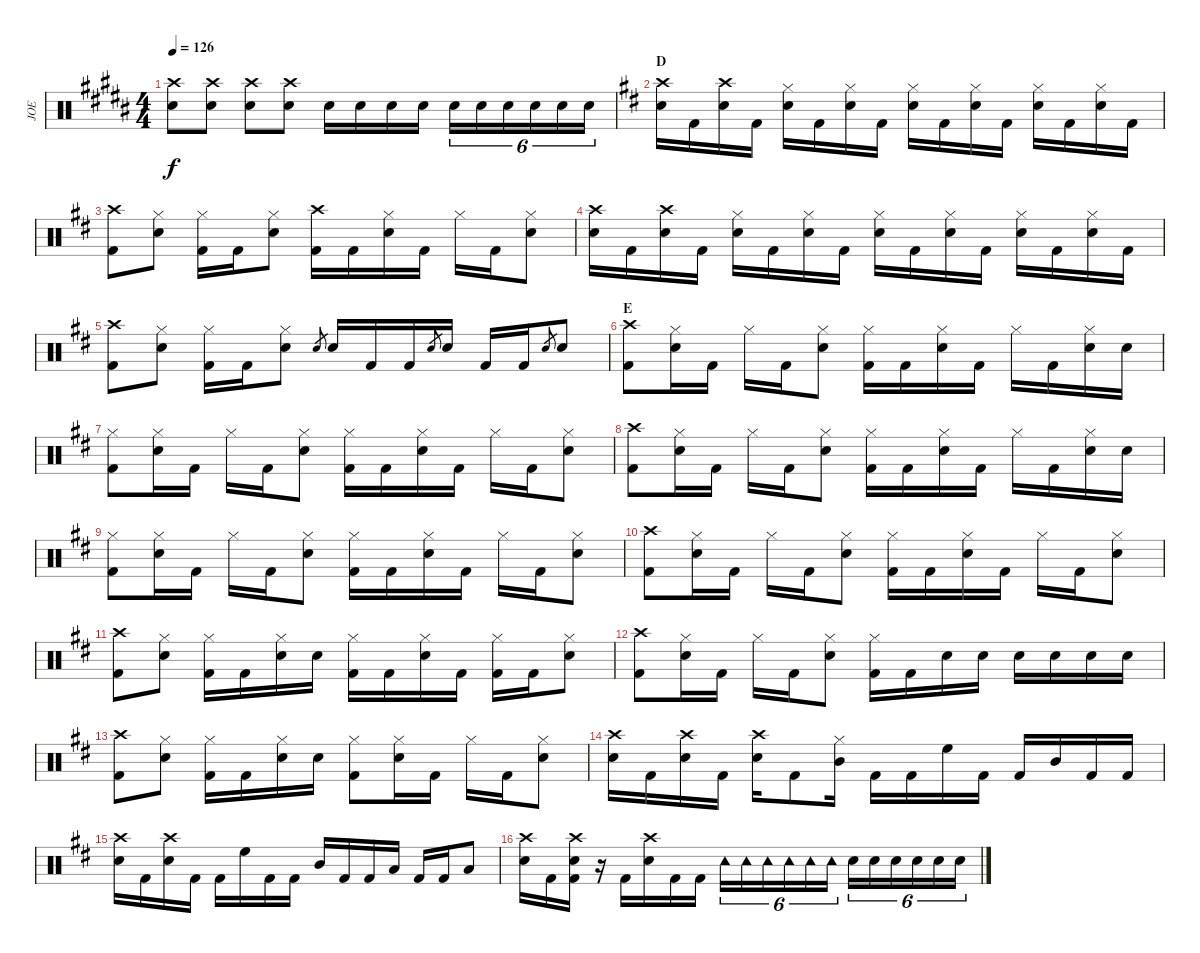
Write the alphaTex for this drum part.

\track ("JOE" "JOE") {instrument percussion}
\staff {score}
\articulation defaults
\ts (4 4)
\tempo 126
\clef neutral
\ks b
("Crash high (hit)" "Snare (hit) 2").8{dy f} ("Crash high (hit)" "Snare (hit) 2").8 ("Crash high (hit)" "Snare (hit) 2").8 ("Crash high (hit)" "Snare (hit) 2").8 "Snare (hit)"{x}.16 "Snare (hit)"{x}.16 "Snare (hit)"{x}.16 "Snare (hit)"{x}.16 "Snare (hit) 2".16{tu (6 4)} "Snare (hit) 2".16{tu (6 4)} "Snare (hit) 2".16{tu (6 4)} "Snare (hit) 2".16{tu (6 4)} "Snare (hit) 2".16{tu (6 4)} "Snare (hit) 2".16{tu (6 4)} |
\section ("" "D")
\ks d
("Crash high (hit)" "Snare (hit) 2").16 "Kick (hit) 2".16 ("Crash high (hit)" "Snare (hit) 2").16 "Kick (hit) 2".16 ("Hi-Hat (closed)" "Snare (hit) 2").16 "Kick (hit) 2".16 ("Hi-Hat (closed)" "Snare (hit) 2").16 "Kick (hit) 2".16 ("Hi-Hat (closed)" "Snare (hit) 2").16 "Kick (hit) 2".16 ("Hi-Hat (closed)" "Snare (hit) 2").16 "Kick (hit) 2".16 ("Hi-Hat (closed)" "Snare (hit) 2").16 "Kick (hit) 2".16 ("Hi-Hat (closed)" "Snare (hit) 2").16 "Kick (hit) 2".16 |
("Crash high (hit)" "Kick (hit) 2").8 ("Hi-Hat (closed)" "Snare (hit) 2").8 ("Hi-Hat (closed)" "Kick (hit) 2").16 "Kick (hit) 2".16 ("Hi-Hat (closed)" "Snare (hit) 2").8 ("Crash high (hit)" "Kick (hit) 2").16 "Kick (hit) 2".16 ("Hi-Hat (closed)" "Snare (hit) 2").16 "Kick (hit) 2".16 "Hi-Hat (closed)".16 "Kick (hit) 2".16 ("Hi-Hat (closed)" "Snare (hit) 2").8 |
("Crash high (hit)" "Snare (hit) 2").16 "Kick (hit) 2".16 ("Crash high (hit)" "Snare (hit) 2").16 "Kick (hit) 2".16 ("Hi-Hat (closed)" "Snare (hit) 2").16 "Kick (hit) 2".16 ("Hi-Hat (closed)" "Snare (hit) 2").16 "Kick (hit) 2".16 ("Hi-Hat (closed)" "Snare (hit) 2").16 "Kick (hit) 2".16 ("Hi-Hat (closed)" "Snare (hit) 2").16 "Kick (hit) 2".16 ("Hi-Hat (closed)" "Snare (hit) 2").16 "Kick (hit) 2".16 ("Hi-Hat (closed)" "Snare (hit) 2").16 "Kick (hit) 2".16 |
("Crash high (hit)" "Kick (hit) 2").8 ("Hi-Hat (closed)" "Snare (hit) 2").8 ("Hi-Hat (closed)" "Kick (hit) 2").16 "Kick (hit) 2".16 ("Hi-Hat (closed)" "Snare (hit) 2").8 "Snare (hit) 2".8{gr} "Snare (hit) 2".16 "Kick (hit) 2".16 "Kick (hit) 2".16 "Snare (hit) 2".8{gr} "Snare (hit) 2".16 "Kick (hit) 2".16 "Kick (hit) 2".16 "Snare (hit) 2".8{gr} "Snare (hit) 2".8 |
\section ("" "E")
("Crash high (hit)" "Kick (hit) 2").8 ("Hi-Hat (closed)" "Snare (hit) 2").16 "Kick (hit) 2".16 "Hi-Hat (closed)".16 "Kick (hit) 2".16 ("Hi-Hat (closed)" "Snare (hit) 2").8 ("Hi-Hat (closed)" "Kick (hit) 2").16 "Kick (hit) 2".16 ("Hi-Hat (closed)" "Snare (hit) 2").16 "Kick (hit) 2".16 "Hi-Hat (closed)".16 "Kick (hit) 2".16 ("Hi-Hat (closed)" "Snare (hit) 2").16 "Snare (hit) 2".16 |
("Hi-Hat (closed)" "Kick (hit) 2").8 ("Hi-Hat (closed)" "Snare (hit) 2").16 "Kick (hit) 2".16 "Hi-Hat (closed)".16 "Kick (hit) 2".16 ("Hi-Hat (closed)" "Snare (hit) 2").8 ("Hi-Hat (closed)" "Kick (hit) 2").16 "Kick (hit) 2".16 ("Hi-Hat (closed)" "Snare (hit) 2").16 "Kick (hit) 2".16 "Hi-Hat (closed)".16 "Kick (hit) 2".16 ("Hi-Hat (closed)" "Snare (hit) 2").8 |
("Crash high (hit)" "Kick (hit) 2").8 ("Hi-Hat (closed)" "Snare (hit) 2").16 "Kick (hit) 2".16 "Hi-Hat (closed)".16 "Kick (hit) 2".16 ("Hi-Hat (closed)" "Snare (hit) 2").8 ("Hi-Hat (closed)" "Kick (hit) 2").16 "Kick (hit) 2".16 ("Hi-Hat (closed)" "Snare (hit) 2").16 "Kick (hit) 2".16 "Hi-Hat (closed)".16 "Kick (hit) 2".16 ("Hi-Hat (closed)" "Snare (hit) 2").16 "Snare (hit) 2".16 |
("Hi-Hat (closed)" "Kick (hit) 2").8 ("Hi-Hat (closed)" "Snare (hit) 2").16 "Kick (hit) 2".16 "Hi-Hat (closed)".16 "Kick (hit) 2".16 ("Hi-Hat (closed)" "Snare (hit) 2").8 ("Hi-Hat (closed)" "Kick (hit) 2").16 "Kick (hit) 2".16 ("Hi-Hat (closed)" "Snare (hit) 2").16 "Kick (hit) 2".16 "Hi-Hat (closed)".16 "Kick (hit) 2".16 ("Hi-Hat (closed)" "Snare (hit) 2").8 |
("Crash high (hit)" "Kick (hit) 2").8 ("Hi-Hat (closed)" "Snare (hit) 2").16 "Kick (hit) 2".16 "Hi-Hat (closed)".16 "Kick (hit) 2".16 ("Hi-Hat (closed)" "Snare (hit) 2").8 ("Hi-Hat (closed)" "Kick (hit) 2").16 "Kick (hit) 2".16 ("Hi-Hat (closed)" "Snare (hit) 2").16 "Kick (hit) 2".16 "Hi-Hat (closed)".16 "Kick (hit) 2".16 ("Hi-Hat (closed)" "Snare (hit) 2").8 |
("Crash high (hit)" "Kick (hit) 2").8 ("Hi-Hat (closed)" "Snare (hit) 2").8 ("Hi-Hat (closed)" "Kick (hit) 2").16 "Kick (hit) 2".16 ("Hi-Hat (closed)" "Snare (hit) 2").16 "Snare (hit) 2".16 ("Hi-Hat (closed)" "Kick (hit) 2").16 "Kick (hit) 2".16 ("Hi-Hat (closed)" "Snare (hit) 2").16 "Kick (hit) 2".16 ("Hi-Hat (closed)" "Kick (hit) 2").16 "Kick (hit) 2".16 ("Hi-Hat (closed)" "Snare (hit) 2").8 |
("Crash high (hit)" "Kick (hit) 2").8 ("Hi-Hat (closed)" "Snare (hit) 2").16 "Kick (hit) 2".16 "Hi-Hat (closed)".16 "Kick (hit) 2".16 ("Hi-Hat (closed)" "Snare (hit) 2").8 ("Hi-Hat (closed)" "Kick (hit) 2").16 "Kick (hit) 2".16 "Snare (hit) 2".16 "Snare (hit) 2".16 "Snare (hit) 2".16 "Snare (hit) 2".16 "Snare (hit) 2".16 "Snare (hit) 2".16 |
("Crash high (hit)" "Kick (hit) 2").8 ("Hi-Hat (closed)" "Snare (hit) 2").8 ("Hi-Hat (closed)" "Kick (hit) 2").16 "Kick (hit) 2".16 ("Hi-Hat (closed)" "Snare (hit) 2").16 "Snare (hit) 2".16 ("Hi-Hat (closed)" "Kick (hit) 2").8 ("Hi-Hat (closed)" "Snare (hit) 2").16 "Kick (hit) 2".16 "Hi-Hat (closed)".16 "Kick (hit) 2".16 ("Hi-Hat (closed)" "Snare (hit) 2").8 |
("Crash high (hit)" "Snare (hit) 2").16 "Kick (hit) 2".16 ("Crash high (hit)" "Snare (hit) 2").16 "Kick (hit) 2".16 ("Crash high (hit)" "Snare (hit) 2").16 "Kick (hit) 2".8 ("Hi-Hat (closed)" "Mid Tom (hit)").16 "Kick (hit) 2".16 "Kick (hit) 2".16 "High Floor Tom (hit)".16 "Kick (hit) 2".16 "Kick (hit) 2".16 "Mid Tom (hit)".16 "Kick (hit) 2".16 "Kick (hit) 2".16 |
("Crash high (hit)" "Snare (hit) 2").16 "Kick (hit) 2".16 ("Crash high (hit)" "Snare (hit) 2").16 "Kick (hit) 2".16 "Kick (hit) 2".16 "High Floor Tom (hit)".16 "Kick (hit) 2".16 "Kick (hit) 2".16 "Mid Tom (hit)".16 "Kick (hit) 2".16 "Kick (hit) 2".16 "Low Tom (hit)".16 "Kick (hit) 2".16 "Kick (hit) 2".16 "Low Floor Tom (hit)".8 |
("Crash high (hit)" "Snare (hit) 2").16 "Kick (hit) 2".16 ("Crash high (hit)" "Snare (hit) 2" "Kick (hit) 2").16 r.16 "Kick (hit) 2".16 ("Crash high (hit)" "Snare (hit) 2").16 "Kick (hit) 2".16 "Kick (hit) 2".16 "Tambourine (hit)".16{tu (6 4)} "Tambourine (hit)".16{tu (6 4)} "Tambourine (hit)".16{tu (6 4)} "Tambourine (hit)".16{tu (6 4)} "Tambourine (hit)".16{tu (6 4)} "Tambourine (hit)".16{tu (6 4)} "Snare (hit) 2".16{tu (6 4)} "Snare (hit) 2".16{tu (6 4)} "Snare (hit) 2".16{tu (6 4)} "Snare (hit) 2".16{tu (6 4)} "Snare (hit) 2".16{tu (6 4)} "Snare (hit) 2".16{tu (6 4)}
